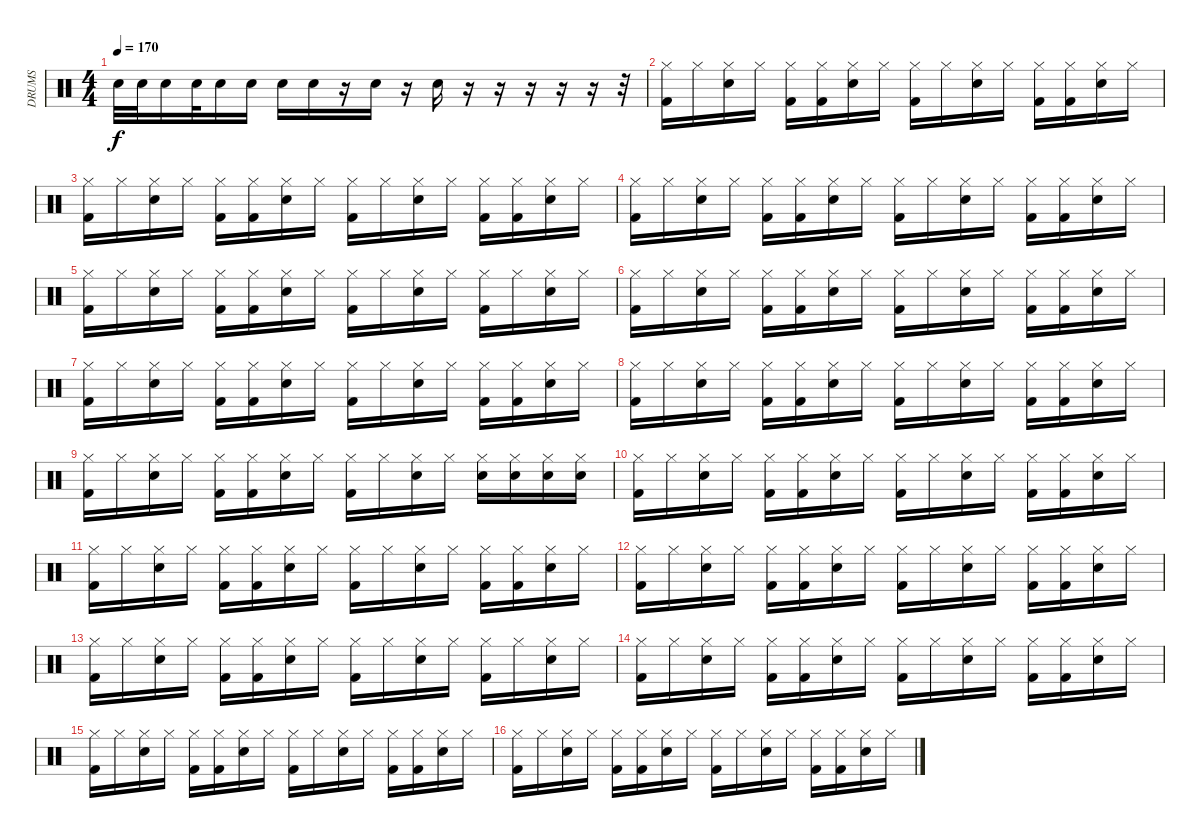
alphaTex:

\track ("DRUMS" "DRUMS") {instrument percussion}
\staff {score}
\articulation defaults
\ts (4 4)
\tempo 170
\clef neutral
\ks c "Snare (hit) 2".32{dy f} "Snare (hit) 2".32 "Snare (hit) 2".16 "Snare (hit) 2".32 "Snare (hit) 2".16 "Snare (hit) 2".16 "Snare (hit) 2".16 "Snare (hit) 2".16
r.16 "Snare (hit) 2".16 r.16 "Snare (hit) 2".16 r.16 r.16 r.16 r.16 r.16 r.32 |
("Hi-Hat (closed)" "Kick (hit) 2").16 "Hi-Hat (closed)".16 ("Hi-Hat (closed)" "Electric Snare (hit)").16 "Hi-Hat (closed)".16 ("Hi-Hat (closed)" "Kick (hit) 2").16 ("Hi-Hat (closed)" "Kick (hit) 2").16 ("Hi-Hat (closed)" "Electric Snare (hit)").16 "Hi-Hat (closed)".16 ("Hi-Hat (closed)" "Kick (hit) 2").16 "Hi-Hat (closed)".16 ("Hi-Hat (closed)" "Electric Snare (hit)").16 "Hi-Hat (closed)".16 ("Hi-Hat (closed)" "Kick (hit) 2").16 ("Hi-Hat (closed)" "Kick (hit) 2").16 ("Hi-Hat (closed)" "Electric Snare (hit)").16 "Hi-Hat (closed)".16 |
("Hi-Hat (closed)" "Kick (hit) 2").16 "Hi-Hat (closed)".16 ("Hi-Hat (closed)" "Electric Snare (hit)").16 "Hi-Hat (closed)".16 ("Hi-Hat (closed)" "Kick (hit) 2").16 ("Hi-Hat (closed)" "Kick (hit) 2").16 ("Hi-Hat (closed)" "Electric Snare (hit)").16 "Hi-Hat (closed)".16 ("Hi-Hat (closed)" "Kick (hit) 2").16 "Hi-Hat (closed)".16 ("Hi-Hat (closed)" "Electric Snare (hit)").16 "Hi-Hat (closed)".16 ("Hi-Hat (closed)" "Kick (hit) 2").16 ("Hi-Hat (closed)" "Kick (hit) 2").16 ("Hi-Hat (closed)" "Electric Snare (hit)").16 "Hi-Hat (closed)".16 |
("Hi-Hat (closed)" "Kick (hit) 2").16 "Hi-Hat (closed)".16 ("Hi-Hat (closed)" "Electric Snare (hit)").16 "Hi-Hat (closed)".16 ("Hi-Hat (closed)" "Kick (hit) 2").16 ("Hi-Hat (closed)" "Kick (hit) 2").16 ("Hi-Hat (closed)" "Electric Snare (hit)").16 "Hi-Hat (closed)".16 ("Hi-Hat (closed)" "Kick (hit) 2").16 "Hi-Hat (closed)".16 ("Hi-Hat (closed)" "Electric Snare (hit)").16 "Hi-Hat (closed)".16 ("Hi-Hat (closed)" "Kick (hit) 2").16 ("Hi-Hat (closed)" "Kick (hit) 2").16 ("Hi-Hat (closed)" "Electric Snare (hit)").16 "Hi-Hat (closed)".16 |
("Hi-Hat (closed)" "Kick (hit) 2").16 "Hi-Hat (closed)".16 ("Hi-Hat (closed)" "Electric Snare (hit)").16 "Hi-Hat (closed)".16 ("Hi-Hat (closed)" "Kick (hit) 2").16 ("Hi-Hat (closed)" "Kick (hit) 2").16 ("Hi-Hat (closed)" "Electric Snare (hit)").16 "Hi-Hat (closed)".16 ("Hi-Hat (closed)" "Kick (hit) 2").16 "Hi-Hat (closed)".16 ("Hi-Hat (closed)" "Electric Snare (hit)").16 "Hi-Hat (closed)".16 ("Hi-Hat (closed)" "Kick (hit) 2").16 "Hi-Hat (closed)".16 ("Hi-Hat (closed)" "Electric Snare (hit)").16 "Hi-Hat (closed)".16 |
("Hi-Hat (closed)" "Kick (hit) 2").16 "Hi-Hat (closed)".16 ("Hi-Hat (closed)" "Electric Snare (hit)").16 "Hi-Hat (closed)".16 ("Hi-Hat (closed)" "Kick (hit) 2").16 ("Hi-Hat (closed)" "Kick (hit) 2").16 ("Hi-Hat (closed)" "Electric Snare (hit)").16 "Hi-Hat (closed)".16 ("Hi-Hat (closed)" "Kick (hit) 2").16 "Hi-Hat (closed)".16 ("Hi-Hat (closed)" "Electric Snare (hit)").16 "Hi-Hat (closed)".16 ("Hi-Hat (closed)" "Kick (hit) 2").16 ("Hi-Hat (closed)" "Kick (hit) 2").16 ("Hi-Hat (closed)" "Electric Snare (hit)").16 "Hi-Hat (closed)".16 |
("Hi-Hat (closed)" "Kick (hit) 2").16 "Hi-Hat (closed)".16 ("Hi-Hat (closed)" "Electric Snare (hit)").16 "Hi-Hat (closed)".16 ("Hi-Hat (closed)" "Kick (hit) 2").16 ("Hi-Hat (closed)" "Kick (hit) 2").16 ("Hi-Hat (closed)" "Electric Snare (hit)").16 "Hi-Hat (closed)".16 ("Hi-Hat (closed)" "Kick (hit) 2").16 "Hi-Hat (closed)".16 ("Hi-Hat (closed)" "Electric Snare (hit)").16 "Hi-Hat (closed)".16 ("Hi-Hat (closed)" "Kick (hit) 2").16 ("Hi-Hat (closed)" "Kick (hit) 2").16 ("Hi-Hat (closed)" "Electric Snare (hit)").16 "Hi-Hat (closed)".16 |
("Hi-Hat (closed)" "Kick (hit) 2").16 "Hi-Hat (closed)".16 ("Hi-Hat (closed)" "Electric Snare (hit)").16 "Hi-Hat (closed)".16 ("Hi-Hat (closed)" "Kick (hit) 2").16 ("Hi-Hat (closed)" "Kick (hit) 2").16 ("Hi-Hat (closed)" "Electric Snare (hit)").16 "Hi-Hat (closed)".16 ("Hi-Hat (closed)" "Kick (hit) 2").16 "Hi-Hat (closed)".16 ("Hi-Hat (closed)" "Electric Snare (hit)").16 "Hi-Hat (closed)".16 ("Hi-Hat (closed)" "Kick (hit) 2").16 ("Hi-Hat (closed)" "Kick (hit) 2").16 ("Hi-Hat (closed)" "Electric Snare (hit)").16 "Hi-Hat (closed)".16 |
("Hi-Hat (closed)" "Kick (hit) 2").16 "Hi-Hat (closed)".16 ("Hi-Hat (closed)" "Electric Snare (hit)").16 "Hi-Hat (closed)".16 ("Hi-Hat (closed)" "Kick (hit) 2").16 ("Hi-Hat (closed)" "Kick (hit) 2").16 ("Hi-Hat (closed)" "Electric Snare (hit)").16 "Hi-Hat (closed)".16 ("Hi-Hat (closed)" "Kick (hit) 2").16 "Hi-Hat (closed)".16 ("Hi-Hat (closed)" "Electric Snare (hit)").16 "Hi-Hat (closed)".16 ("Hi-Hat (closed)" "Snare (hit) 2").16 ("Hi-Hat (closed)" "Snare (hit) 2").16 ("Hi-Hat (closed)" "Snare (hit) 2").16 ("Hi-Hat (closed)" "Snare (hit) 2").16 |
("Hi-Hat (closed)" "Kick (hit) 2").16 "Hi-Hat (closed)".16 ("Hi-Hat (closed)" "Electric Snare (hit)").16 "Hi-Hat (closed)".16 ("Hi-Hat (closed)" "Kick (hit) 2").16 ("Hi-Hat (closed)" "Kick (hit) 2").16 ("Hi-Hat (closed)" "Electric Snare (hit)").16 "Hi-Hat (closed)".16 ("Hi-Hat (closed)" "Kick (hit) 2").16 "Hi-Hat (closed)".16 ("Hi-Hat (closed)" "Electric Snare (hit)").16 "Hi-Hat (closed)".16 ("Hi-Hat (closed)" "Kick (hit) 2").16 ("Hi-Hat (closed)" "Kick (hit) 2").16 ("Hi-Hat (closed)" "Electric Snare (hit)").16 "Hi-Hat (closed)".16 |
("Hi-Hat (closed)" "Kick (hit) 2").16 "Hi-Hat (closed)".16 ("Hi-Hat (closed)" "Electric Snare (hit)").16 "Hi-Hat (closed)".16 ("Hi-Hat (closed)" "Kick (hit) 2").16 ("Hi-Hat (closed)" "Kick (hit) 2").16 ("Hi-Hat (closed)" "Electric Snare (hit)").16 "Hi-Hat (closed)".16 ("Hi-Hat (closed)" "Kick (hit) 2").16 "Hi-Hat (closed)".16 ("Hi-Hat (closed)" "Electric Snare (hit)").16 "Hi-Hat (closed)".16 ("Hi-Hat (closed)" "Kick (hit) 2").16 ("Hi-Hat (closed)" "Kick (hit) 2").16 ("Hi-Hat (closed)" "Electric Snare (hit)").16 "Hi-Hat (closed)".16 |
("Hi-Hat (closed)" "Kick (hit) 2").16 "Hi-Hat (closed)".16 ("Hi-Hat (closed)" "Electric Snare (hit)").16 "Hi-Hat (closed)".16 ("Hi-Hat (closed)" "Kick (hit) 2").16 ("Hi-Hat (closed)" "Kick (hit) 2").16 ("Hi-Hat (closed)" "Electric Snare (hit)").16 "Hi-Hat (closed)".16 ("Hi-Hat (closed)" "Kick (hit) 2").16 "Hi-Hat (closed)".16 ("Hi-Hat (closed)" "Electric Snare (hit)").16 "Hi-Hat (closed)".16 ("Hi-Hat (closed)" "Kick (hit) 2").16 ("Hi-Hat (closed)" "Kick (hit) 2").16 ("Hi-Hat (closed)" "Electric Snare (hit)").16 "Hi-Hat (closed)".16 |
("Hi-Hat (closed)" "Kick (hit) 2").16 "Hi-Hat (closed)".16 ("Hi-Hat (closed)" "Electric Snare (hit)").16 "Hi-Hat (closed)".16 ("Hi-Hat (closed)" "Kick (hit) 2").16 ("Hi-Hat (closed)" "Kick (hit) 2").16 ("Hi-Hat (closed)" "Electric Snare (hit)").16 "Hi-Hat (closed)".16 ("Hi-Hat (closed)" "Kick (hit) 2").16 "Hi-Hat (closed)".16 ("Hi-Hat (closed)" "Electric Snare (hit)").16 "Hi-Hat (closed)".16 ("Hi-Hat (closed)" "Kick (hit) 2").16 "Hi-Hat (closed)".16 ("Hi-Hat (closed)" "Electric Snare (hit)").16 "Hi-Hat (closed)".16 |
("Hi-Hat (closed)" "Kick (hit) 2").16 "Hi-Hat (closed)".16 ("Hi-Hat (closed)" "Electric Snare (hit)").16 "Hi-Hat (closed)".16 ("Hi-Hat (closed)" "Kick (hit) 2").16 ("Hi-Hat (closed)" "Kick (hit) 2").16 ("Hi-Hat (closed)" "Electric Snare (hit)").16 "Hi-Hat (closed)".16 ("Hi-Hat (closed)" "Kick (hit) 2").16 "Hi-Hat (closed)".16 ("Hi-Hat (closed)" "Electric Snare (hit)").16 "Hi-Hat (closed)".16 ("Hi-Hat (closed)" "Kick (hit) 2").16 ("Hi-Hat (closed)" "Kick (hit) 2").16 ("Hi-Hat (closed)" "Electric Snare (hit)").16 "Hi-Hat (closed)".16 |
("Hi-Hat (closed)" "Kick (hit) 2").16 "Hi-Hat (closed)".16 ("Hi-Hat (closed)" "Electric Snare (hit)").16 "Hi-Hat (closed)".16 ("Hi-Hat (closed)" "Kick (hit) 2").16 ("Hi-Hat (closed)" "Kick (hit) 2").16 ("Hi-Hat (closed)" "Electric Snare (hit)").16 "Hi-Hat (closed)".16 ("Hi-Hat (closed)" "Kick (hit) 2").16 "Hi-Hat (closed)".16 ("Hi-Hat (closed)" "Electric Snare (hit)").16 "Hi-Hat (closed)".16 ("Hi-Hat (closed)" "Kick (hit) 2").16 ("Hi-Hat (closed)" "Kick (hit) 2").16 ("Hi-Hat (closed)" "Electric Snare (hit)").16 "Hi-Hat (closed)".16 |
("Hi-Hat (closed)" "Kick (hit) 2").16 "Hi-Hat (closed)".16 ("Hi-Hat (closed)" "Electric Snare (hit)").16 "Hi-Hat (closed)".16 ("Hi-Hat (closed)" "Kick (hit) 2").16 ("Hi-Hat (closed)" "Kick (hit) 2").16 ("Hi-Hat (closed)" "Electric Snare (hit)").16 "Hi-Hat (closed)".16 ("Hi-Hat (closed)" "Kick (hit) 2").16 "Hi-Hat (closed)".16 ("Hi-Hat (closed)" "Electric Snare (hit)").16 "Hi-Hat (closed)".16 ("Hi-Hat (closed)" "Kick (hit) 2").16 ("Hi-Hat (closed)" "Kick (hit) 2").16 ("Hi-Hat (closed)" "Electric Snare (hit)").16 "Hi-Hat (closed)".16
